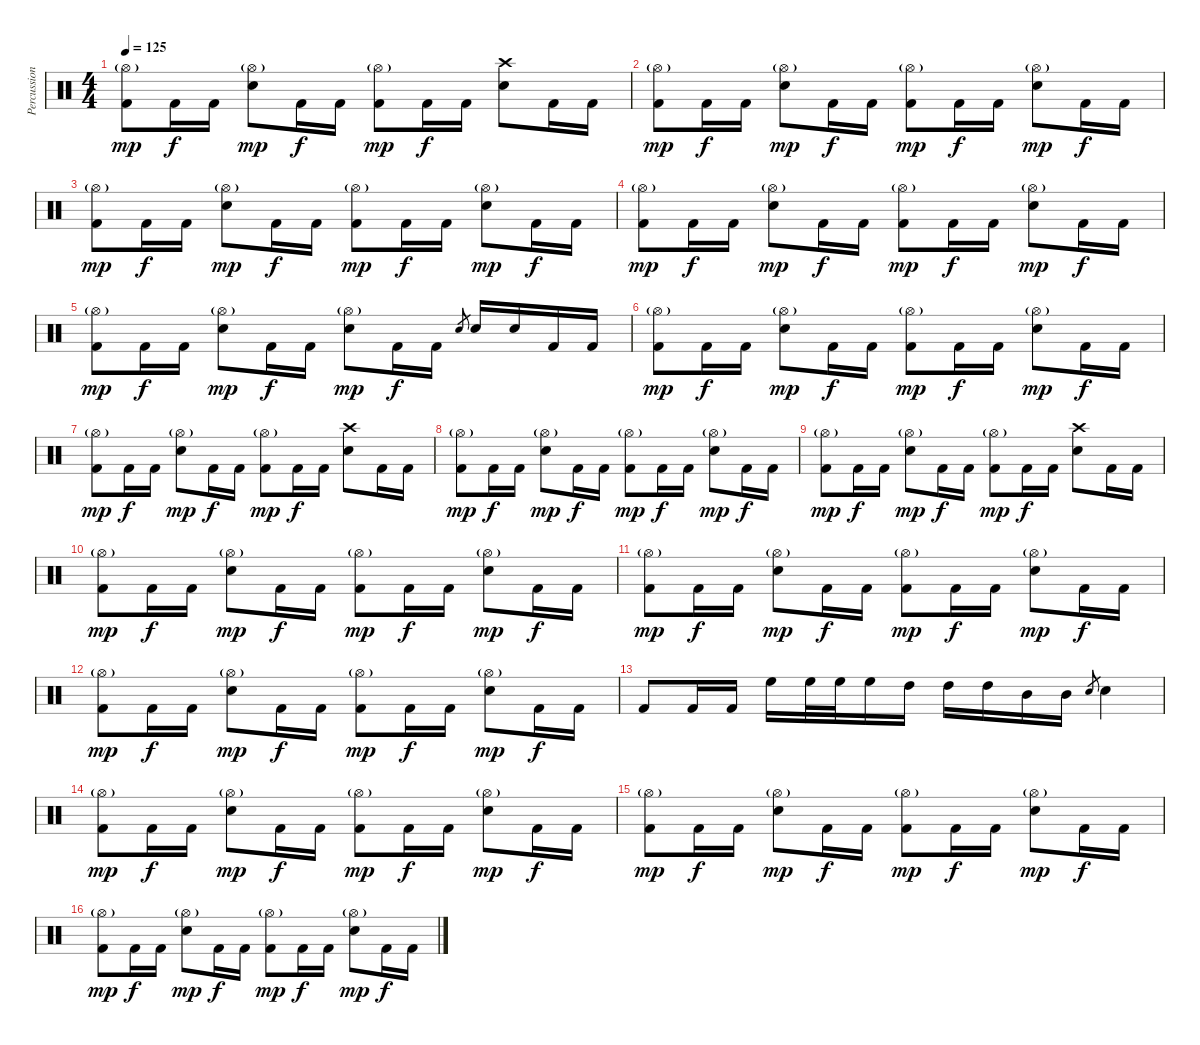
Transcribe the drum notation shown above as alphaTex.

\track ("Percussion" "Percussion") {instrument percussion}
\staff {score}
\articulation defaults
\ts (4 4)
\tempo 125
\clef neutral
\ks c
("Hi-Hat (open)"{g} "Kick (hit) 2").8{dy mp} "Kick (hit) 2".16{dy f} "Kick (hit) 2".16 ("Hi-Hat (open)"{g} "Electric Snare (hit)").8{dy mp} "Kick (hit) 2".16{dy f} "Kick (hit) 2".16 ("Hi-Hat (open)"{g} "Kick (hit) 2").8{dy mp} "Kick (hit) 2".16{dy f} "Kick (hit) 2".16 ("Crash high (hit)" "Electric Snare (hit)").8 "Kick (hit) 2".16 "Kick (hit) 2".16 |
("Hi-Hat (open)"{g} "Kick (hit) 2").8{dy mp} "Kick (hit) 2".16{dy f} "Kick (hit) 2".16 ("Hi-Hat (open)"{g} "Electric Snare (hit)").8{dy mp} "Kick (hit) 2".16{dy f} "Kick (hit) 2".16 ("Hi-Hat (open)"{g} "Kick (hit) 2").8{dy mp} "Kick (hit) 2".16{dy f} "Kick (hit) 2".16 ("Hi-Hat (open)"{g} "Electric Snare (hit)").8{dy mp} "Kick (hit) 2".16{dy f} "Kick (hit) 2".16 |
("Hi-Hat (open)"{g} "Kick (hit) 2").8{dy mp} "Kick (hit) 2".16{dy f} "Kick (hit) 2".16 ("Hi-Hat (open)"{g} "Electric Snare (hit)").8{dy mp} "Kick (hit) 2".16{dy f} "Kick (hit) 2".16 ("Hi-Hat (open)"{g} "Kick (hit) 2").8{dy mp} "Kick (hit) 2".16{dy f} "Kick (hit) 2".16 ("Hi-Hat (open)"{g} "Electric Snare (hit)").8{dy mp} "Kick (hit) 2".16{dy f} "Kick (hit) 2".16 |
("Hi-Hat (open)"{g} "Kick (hit) 2").8{dy mp} "Kick (hit) 2".16{dy f} "Kick (hit) 2".16 ("Hi-Hat (open)"{g} "Electric Snare (hit)").8{dy mp} "Kick (hit) 2".16{dy f} "Kick (hit) 2".16 ("Hi-Hat (open)"{g} "Kick (hit) 2").8{dy mp} "Kick (hit) 2".16{dy f} "Kick (hit) 2".16 ("Hi-Hat (open)"{g} "Electric Snare (hit)").8{dy mp} "Kick (hit) 2".16{dy f} "Kick (hit) 2".16 |
("Hi-Hat (open)"{g} "Kick (hit) 2").8{dy mp} "Kick (hit) 2".16{dy f} "Kick (hit) 2".16 ("Hi-Hat (open)"{g} "Electric Snare (hit)").8{dy mp} "Kick (hit) 2".16{dy f} "Kick (hit) 2".16 ("Hi-Hat (open)"{g} "Electric Snare (hit)").8{dy mp} "Kick (hit) 2".16{dy f} "Kick (hit) 2".16 "Electric Snare (hit)".8{gr} "Electric Snare (hit)".16 "Electric Snare (hit)".16 "Kick (hit) 2".16 "Kick (hit) 2".16 |
("Hi-Hat (open)"{g} "Kick (hit) 2").8{dy mp} "Kick (hit) 2".16{dy f} "Kick (hit) 2".16 ("Hi-Hat (open)"{g} "Electric Snare (hit)").8{dy mp} "Kick (hit) 2".16{dy f} "Kick (hit) 2".16 ("Hi-Hat (open)"{g} "Kick (hit) 2").8{dy mp} "Kick (hit) 2".16{dy f} "Kick (hit) 2".16 ("Hi-Hat (open)"{g} "Electric Snare (hit)").8{dy mp} "Kick (hit) 2".16{dy f} "Kick (hit) 2".16 |
("Hi-Hat (open)"{g} "Kick (hit) 2").8{dy mp} "Kick (hit) 2".16{dy f} "Kick (hit) 2".16 ("Hi-Hat (open)"{g} "Electric Snare (hit)").8{dy mp} "Kick (hit) 2".16{dy f} "Kick (hit) 2".16 ("Hi-Hat (open)"{g} "Kick (hit) 2").8{dy mp} "Kick (hit) 2".16{dy f} "Kick (hit) 2".16 ("Crash high (hit)" "Electric Snare (hit)").8 "Kick (hit) 2".16 "Kick (hit) 2".16 |
("Hi-Hat (open)"{g} "Kick (hit) 2").8{dy mp} "Kick (hit) 2".16{dy f} "Kick (hit) 2".16 ("Hi-Hat (open)"{g} "Electric Snare (hit)").8{dy mp} "Kick (hit) 2".16{dy f} "Kick (hit) 2".16 ("Hi-Hat (open)"{g} "Kick (hit) 2").8{dy mp} "Kick (hit) 2".16{dy f} "Kick (hit) 2".16 ("Hi-Hat (open)"{g} "Electric Snare (hit)").8{dy mp} "Kick (hit) 2".16{dy f} "Kick (hit) 2".16 |
("Hi-Hat (open)"{g} "Kick (hit) 2").8{dy mp} "Kick (hit) 2".16{dy f} "Kick (hit) 2".16 ("Hi-Hat (open)"{g} "Electric Snare (hit)").8{dy mp} "Kick (hit) 2".16{dy f} "Kick (hit) 2".16 ("Hi-Hat (open)"{g} "Kick (hit) 2").8{dy mp} "Kick (hit) 2".16{dy f} "Kick (hit) 2".16 ("Crash high (hit)" "Electric Snare (hit)").8 "Kick (hit) 2".16 "Kick (hit) 2".16 |
("Hi-Hat (open)"{g} "Kick (hit) 2").8{dy mp} "Kick (hit) 2".16{dy f} "Kick (hit) 2".16 ("Hi-Hat (open)"{g} "Electric Snare (hit)").8{dy mp} "Kick (hit) 2".16{dy f} "Kick (hit) 2".16 ("Hi-Hat (open)"{g} "Kick (hit) 2").8{dy mp} "Kick (hit) 2".16{dy f} "Kick (hit) 2".16 ("Hi-Hat (open)"{g} "Electric Snare (hit)").8{dy mp} "Kick (hit) 2".16{dy f} "Kick (hit) 2".16 |
("Hi-Hat (open)"{g} "Kick (hit) 2").8{dy mp} "Kick (hit) 2".16{dy f} "Kick (hit) 2".16 ("Hi-Hat (open)"{g} "Electric Snare (hit)").8{dy mp} "Kick (hit) 2".16{dy f} "Kick (hit) 2".16 ("Hi-Hat (open)"{g} "Kick (hit) 2").8{dy mp} "Kick (hit) 2".16{dy f} "Kick (hit) 2".16 ("Hi-Hat (open)"{g} "Electric Snare (hit)").8{dy mp} "Kick (hit) 2".16{dy f} "Kick (hit) 2".16 |
("Hi-Hat (open)"{g} "Kick (hit) 2").8{dy mp} "Kick (hit) 2".16{dy f} "Kick (hit) 2".16 ("Hi-Hat (open)"{g} "Electric Snare (hit)").8{dy mp} "Kick (hit) 2".16{dy f} "Kick (hit) 2".16 ("Hi-Hat (open)"{g} "Kick (hit) 2").8{dy mp} "Kick (hit) 2".16{dy f} "Kick (hit) 2".16 ("Hi-Hat (open)"{g} "Electric Snare (hit)").8{dy mp} "Kick (hit) 2".16{dy f} "Kick (hit) 2".16 |
"Kick (hit) 2".8 "Kick (hit) 2".16 "Kick (hit) 2".16 "High Floor Tom (hit)".16 "High Floor Tom (hit)".32 "High Floor Tom (hit)".32 "High Floor Tom (hit)".16 "High Tom (hit)".16 "High Tom (hit)".16 "High Tom (hit)".16 "Mid Tom (hit)".16 "Mid Tom (hit)".16 "Electric Snare (hit)".8{gr} "Electric Snare (hit)".4 |
("Hi-Hat (open)"{g} "Kick (hit) 2").8{dy mp} "Kick (hit) 2".16{dy f} "Kick (hit) 2".16 ("Hi-Hat (open)"{g} "Electric Snare (hit)").8{dy mp} "Kick (hit) 2".16{dy f} "Kick (hit) 2".16 ("Hi-Hat (open)"{g} "Kick (hit) 2").8{dy mp} "Kick (hit) 2".16{dy f} "Kick (hit) 2".16 ("Hi-Hat (open)"{g} "Electric Snare (hit)").8{dy mp} "Kick (hit) 2".16{dy f} "Kick (hit) 2".16 |
("Hi-Hat (open)"{g} "Kick (hit) 2").8{dy mp} "Kick (hit) 2".16{dy f} "Kick (hit) 2".16 ("Hi-Hat (open)"{g} "Electric Snare (hit)").8{dy mp} "Kick (hit) 2".16{dy f} "Kick (hit) 2".16 ("Hi-Hat (open)"{g} "Kick (hit) 2").8{dy mp} "Kick (hit) 2".16{dy f} "Kick (hit) 2".16 ("Hi-Hat (open)"{g} "Electric Snare (hit)").8{dy mp} "Kick (hit) 2".16{dy f} "Kick (hit) 2".16 |
("Hi-Hat (open)"{g} "Kick (hit) 2").8{dy mp} "Kick (hit) 2".16{dy f} "Kick (hit) 2".16 ("Hi-Hat (open)"{g} "Electric Snare (hit)").8{dy mp} "Kick (hit) 2".16{dy f} "Kick (hit) 2".16 ("Hi-Hat (open)"{g} "Kick (hit) 2").8{dy mp} "Kick (hit) 2".16{dy f} "Kick (hit) 2".16 ("Hi-Hat (open)"{g} "Electric Snare (hit)").8{dy mp} "Kick (hit) 2".16{dy f} "Kick (hit) 2".16
